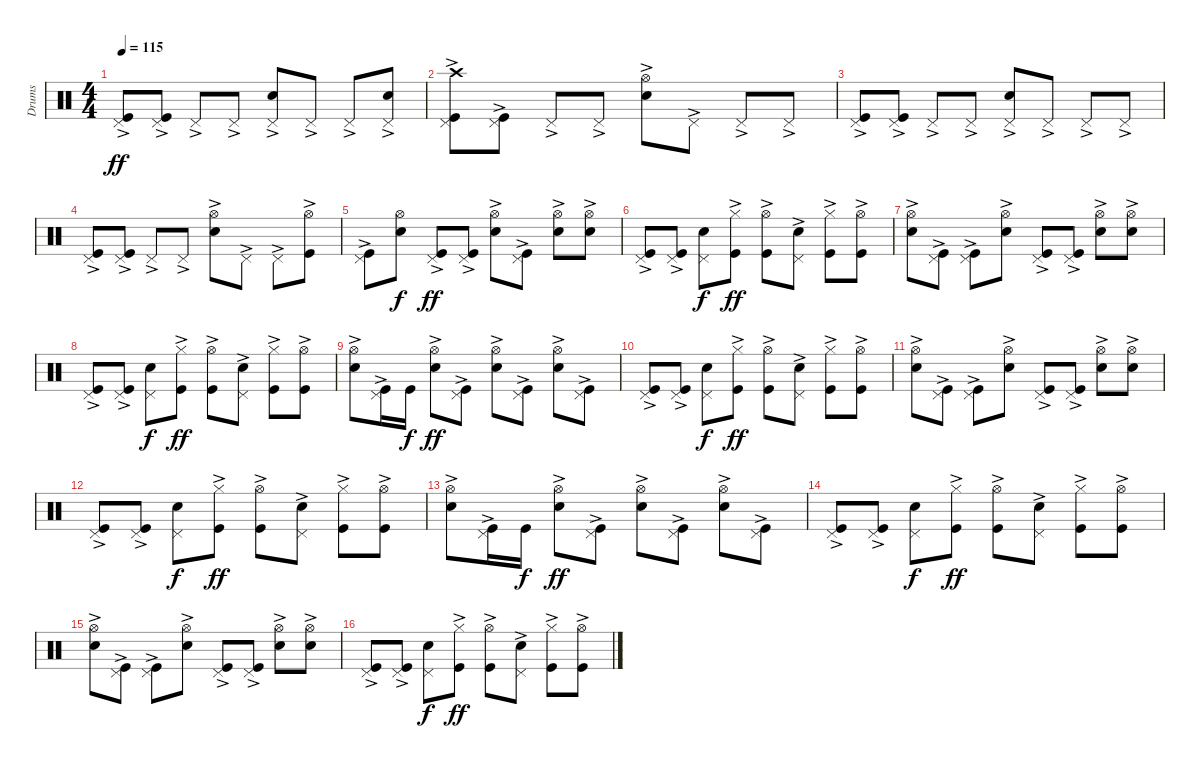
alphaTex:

\track ("Drums" "Drums") {instrument percussion}
\staff {score}
\articulation defaults
\ts (4 4)
\tempo 115
\clef neutral
\ks c
("Kick (hit)" "Pedal Hi-Hat (hit)"{ac}).8{dy ff} ("Kick (hit)" "Pedal Hi-Hat (hit)"{ac}).8 "Pedal Hi-Hat (hit)"{ac}.8 "Pedal Hi-Hat (hit)"{ac}.8 ("Pedal Hi-Hat (hit)"{ac} "Electric Snare (hit)").8 "Pedal Hi-Hat (hit)"{ac}.8 "Pedal Hi-Hat (hit)"{ac}.8 ("Pedal Hi-Hat (hit)"{ac} "Electric Snare (hit)").8 |
("Kick (hit)" "Pedal Hi-Hat (hit)"{ac} "Crash high (hit)"{ac}).8 ("Kick (hit)" "Pedal Hi-Hat (hit)"{ac}).8 "Pedal Hi-Hat (hit)"{ac}.8 "Pedal Hi-Hat (hit)"{ac}.8 ("Hi-Hat (open)"{ac} "Electric Snare (hit)").8 "Pedal Hi-Hat (hit)"{ac}.8 "Pedal Hi-Hat (hit)"{ac}.8 "Pedal Hi-Hat (hit)"{ac}.8 |
("Kick (hit)" "Pedal Hi-Hat (hit)"{ac}).8 ("Kick (hit)" "Pedal Hi-Hat (hit)"{ac}).8 "Pedal Hi-Hat (hit)"{ac}.8 "Pedal Hi-Hat (hit)"{ac}.8 ("Pedal Hi-Hat (hit)"{ac} "Electric Snare (hit)").8 "Pedal Hi-Hat (hit)"{ac}.8 "Pedal Hi-Hat (hit)"{ac}.8 "Pedal Hi-Hat (hit)"{ac}.8 |
("Kick (hit)" "Pedal Hi-Hat (hit)"{ac}).8 ("Kick (hit)" "Pedal Hi-Hat (hit)"{ac}).8 "Pedal Hi-Hat (hit)"{ac}.8 "Pedal Hi-Hat (hit)"{ac}.8 ("Hi-Hat (open)"{ac} "Electric Snare (hit)").8 "Pedal Hi-Hat (hit)"{ac}.8 "Pedal Hi-Hat (hit)"{ac}.8 ("Kick (hit)" "Hi-Hat (open)"{ac}).8 |
("Kick (hit)" "Pedal Hi-Hat (hit)"{ac}).8 ("Hi-Hat (open)" "Electric Snare (hit)").8{dy f} ("Kick (hit)" "Pedal Hi-Hat (hit)"{ac}).8{dy ff} ("Kick (hit)" "Pedal Hi-Hat (hit)"{ac}).8 ("Hi-Hat (open)"{ac} "Electric Snare (hit)").8 ("Kick (hit)" "Pedal Hi-Hat (hit)"{ac}).8 ("Hi-Hat (open)"{ac} "Electric Snare (hit)").8 ("Hi-Hat (open)"{ac} "Electric Snare (hit)").8 |
("Kick (hit)" "Pedal Hi-Hat (hit)"{ac}).8 ("Kick (hit)" "Pedal Hi-Hat (hit)"{ac}).8 ("Pedal Hi-Hat (hit)" "Electric Snare (hit)").8{dy f} ("Kick (hit)" "Hi-Hat (closed)"{ac}).8{dy ff} ("Kick (hit)" "Hi-Hat (open)"{ac}).8 ("Pedal Hi-Hat (hit)"{ac} "Electric Snare (hit)").8 ("Kick (hit)" "Hi-Hat (closed)"{ac}).8 ("Kick (hit)" "Hi-Hat (open)"{ac}).8 |
("Hi-Hat (open)"{ac} "Electric Snare (hit)").8 ("Kick (hit)" "Pedal Hi-Hat (hit)"{ac}).8 ("Kick (hit)" "Pedal Hi-Hat (hit)"{ac}).8 ("Hi-Hat (open)"{ac} "Electric Snare (hit)").8 ("Kick (hit)" "Pedal Hi-Hat (hit)"{ac}).8 ("Kick (hit)" "Pedal Hi-Hat (hit)"{ac}).8 ("Hi-Hat (open)"{ac} "Electric Snare (hit)").8 ("Hi-Hat (open)"{ac} "Electric Snare (hit)").8 |
("Kick (hit)" "Pedal Hi-Hat (hit)"{ac}).8 ("Kick (hit)" "Pedal Hi-Hat (hit)"{ac}).8 ("Pedal Hi-Hat (hit)" "Electric Snare (hit)").8{dy f} ("Kick (hit)" "Hi-Hat (closed)"{ac}).8{dy ff} ("Kick (hit)" "Hi-Hat (open)"{ac}).8 ("Pedal Hi-Hat (hit)"{ac} "Electric Snare (hit)").8 ("Kick (hit)" "Hi-Hat (closed)"{ac}).8 ("Kick (hit)" "Hi-Hat (open)"{ac}).8 |
("Hi-Hat (open)"{ac} "Electric Snare (hit)").8 ("Kick (hit)" "Pedal Hi-Hat (hit)"{ac}).16 "Kick (hit)".16{dy f} ("Hi-Hat (open)"{ac} "Electric Snare (hit)").8{dy ff} ("Kick (hit)" "Pedal Hi-Hat (hit)"{ac}).8 ("Hi-Hat (open)"{ac} "Electric Snare (hit)").8 ("Kick (hit)" "Pedal Hi-Hat (hit)"{ac}).8 ("Hi-Hat (open)"{ac} "Electric Snare (hit)").8 ("Kick (hit)" "Pedal Hi-Hat (hit)"{ac}).8 |
("Kick (hit)" "Pedal Hi-Hat (hit)"{ac}).8 ("Kick (hit)" "Pedal Hi-Hat (hit)"{ac}).8 ("Pedal Hi-Hat (hit)" "Electric Snare (hit)").8{dy f} ("Kick (hit)" "Hi-Hat (closed)"{ac}).8{dy ff} ("Kick (hit)" "Hi-Hat (open)"{ac}).8 ("Pedal Hi-Hat (hit)"{ac} "Electric Snare (hit)").8 ("Kick (hit)" "Hi-Hat (closed)"{ac}).8 ("Kick (hit)" "Hi-Hat (open)"{ac}).8 |
("Hi-Hat (open)"{ac} "Electric Snare (hit)").8 ("Kick (hit)" "Pedal Hi-Hat (hit)"{ac}).8 ("Kick (hit)" "Pedal Hi-Hat (hit)"{ac}).8 ("Hi-Hat (open)"{ac} "Electric Snare (hit)").8 ("Kick (hit)" "Pedal Hi-Hat (hit)"{ac}).8 ("Kick (hit)" "Pedal Hi-Hat (hit)"{ac}).8 ("Hi-Hat (open)"{ac} "Electric Snare (hit)").8 ("Hi-Hat (open)"{ac} "Electric Snare (hit)").8 |
("Kick (hit)" "Pedal Hi-Hat (hit)"{ac}).8 ("Kick (hit)" "Pedal Hi-Hat (hit)"{ac}).8 ("Pedal Hi-Hat (hit)" "Electric Snare (hit)").8{dy f} ("Kick (hit)" "Hi-Hat (closed)"{ac}).8{dy ff} ("Kick (hit)" "Hi-Hat (open)"{ac}).8 ("Pedal Hi-Hat (hit)"{ac} "Electric Snare (hit)").8 ("Kick (hit)" "Hi-Hat (closed)"{ac}).8 ("Kick (hit)" "Hi-Hat (open)"{ac}).8 |
("Hi-Hat (open)"{ac} "Electric Snare (hit)").8 ("Kick (hit)" "Pedal Hi-Hat (hit)"{ac}).16 "Kick (hit)".16{dy f} ("Hi-Hat (open)"{ac} "Electric Snare (hit)").8{dy ff} ("Kick (hit)" "Pedal Hi-Hat (hit)"{ac}).8 ("Hi-Hat (open)"{ac} "Electric Snare (hit)").8 ("Kick (hit)" "Pedal Hi-Hat (hit)"{ac}).8 ("Hi-Hat (open)"{ac} "Electric Snare (hit)").8 ("Kick (hit)" "Pedal Hi-Hat (hit)"{ac}).8 |
("Kick (hit)" "Pedal Hi-Hat (hit)"{ac}).8 ("Kick (hit)" "Pedal Hi-Hat (hit)"{ac}).8 ("Pedal Hi-Hat (hit)" "Electric Snare (hit)").8{dy f} ("Kick (hit)" "Hi-Hat (closed)"{ac}).8{dy ff} ("Kick (hit)" "Hi-Hat (open)"{ac}).8 ("Pedal Hi-Hat (hit)"{ac} "Electric Snare (hit)").8 ("Kick (hit)" "Hi-Hat (closed)"{ac}).8 ("Kick (hit)" "Hi-Hat (open)"{ac}).8 |
("Hi-Hat (open)"{ac} "Electric Snare (hit)").8 ("Kick (hit)" "Pedal Hi-Hat (hit)"{ac}).8 ("Kick (hit)" "Pedal Hi-Hat (hit)"{ac}).8 ("Hi-Hat (open)"{ac} "Electric Snare (hit)").8 ("Kick (hit)" "Pedal Hi-Hat (hit)"{ac}).8 ("Kick (hit)" "Pedal Hi-Hat (hit)"{ac}).8 ("Hi-Hat (open)"{ac} "Electric Snare (hit)").8 ("Hi-Hat (open)"{ac} "Electric Snare (hit)").8 |
("Kick (hit)" "Pedal Hi-Hat (hit)"{ac}).8 ("Kick (hit)" "Pedal Hi-Hat (hit)"{ac}).8 ("Pedal Hi-Hat (hit)" "Electric Snare (hit)").8{dy f} ("Kick (hit)" "Hi-Hat (closed)"{ac}).8{dy ff} ("Kick (hit)" "Hi-Hat (open)"{ac}).8 ("Pedal Hi-Hat (hit)"{ac} "Electric Snare (hit)").8 ("Kick (hit)" "Hi-Hat (closed)"{ac}).8 ("Kick (hit)" "Hi-Hat (open)"{ac}).8
